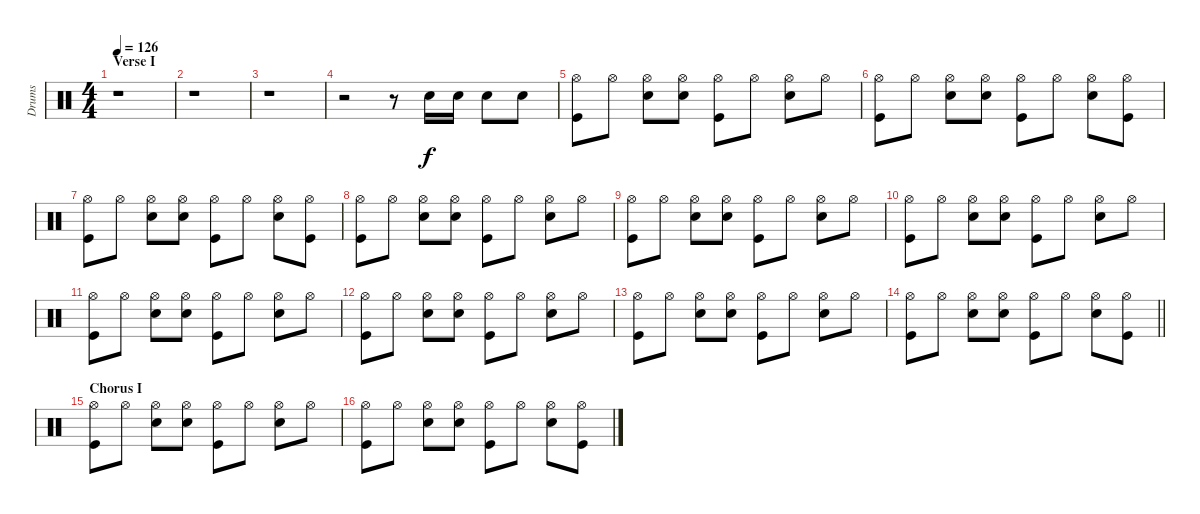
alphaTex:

\track ("Drums" "Drums") {instrument percussion}
\staff {score}
\articulation defaults
\ts (4 4)
\section ("" "Verse I")
\tempo 126
\clef neutral
\ks c
r.1{dy f} |
r.1 |
r.1 |
r.2 r.8 "Snare (hit) 2".16 "Snare (hit) 2".16 "Snare (hit) 2".8 "Snare (hit) 2".8 |
("Hi-Hat (open)" "Kick (hit)").8 "Hi-Hat (open)".8 ("Hi-Hat (open)" "Snare (hit) 2").8 ("Hi-Hat (open)" "Snare (hit) 2").8 ("Hi-Hat (open)" "Kick (hit)").8 "Hi-Hat (open)".8 ("Hi-Hat (open)" "Snare (hit) 2").8 "Hi-Hat (open)".8 |
("Kick (hit)" "Hi-Hat (open)").8 "Hi-Hat (open)".8 ("Hi-Hat (open)" "Snare (hit) 2").8 ("Hi-Hat (open)" "Snare (hit) 2").8 ("Hi-Hat (open)" "Kick (hit)").8 "Hi-Hat (open)".8 ("Hi-Hat (open)" "Snare (hit) 2").8 ("Hi-Hat (open)" "Kick (hit)").8 |
("Hi-Hat (open)" "Kick (hit)").8 "Hi-Hat (open)".8 ("Hi-Hat (open)" "Snare (hit) 2").8 ("Hi-Hat (open)" "Snare (hit) 2").8 ("Hi-Hat (open)" "Kick (hit)").8 "Hi-Hat (open)".8 ("Hi-Hat (open)" "Snare (hit) 2").8 ("Hi-Hat (open)" "Kick (hit)").8 |
("Kick (hit)" "Hi-Hat (open)").8 "Hi-Hat (open)".8 ("Hi-Hat (open)" "Snare (hit) 2").8 ("Hi-Hat (open)" "Snare (hit) 2").8 ("Hi-Hat (open)" "Kick (hit)").8 "Hi-Hat (open)".8 ("Hi-Hat (open)" "Snare (hit) 2").8 "Hi-Hat (open)".8 |
("Kick (hit)" "Hi-Hat (open)").8 "Hi-Hat (open)".8 ("Hi-Hat (open)" "Snare (hit) 2").8 ("Hi-Hat (open)" "Snare (hit) 2").8 ("Hi-Hat (open)" "Kick (hit)").8 "Hi-Hat (open)".8 ("Hi-Hat (open)" "Snare (hit) 2").8 "Hi-Hat (open)".8 |
("Kick (hit)" "Hi-Hat (open)").8 "Hi-Hat (open)".8 ("Hi-Hat (open)" "Snare (hit) 2").8 ("Hi-Hat (open)" "Snare (hit) 2").8 ("Hi-Hat (open)" "Kick (hit)").8 "Hi-Hat (open)".8 ("Hi-Hat (open)" "Snare (hit) 2").8 "Hi-Hat (open)".8 |
("Kick (hit)" "Hi-Hat (open)").8 "Hi-Hat (open)".8 ("Hi-Hat (open)" "Snare (hit) 2").8 ("Hi-Hat (open)" "Snare (hit) 2").8 ("Hi-Hat (open)" "Kick (hit)").8 "Hi-Hat (open)".8 ("Hi-Hat (open)" "Snare (hit) 2").8 "Hi-Hat (open)".8 |
("Hi-Hat (open)" "Kick (hit)").8 "Hi-Hat (open)".8 ("Hi-Hat (open)" "Snare (hit) 2").8 ("Hi-Hat (open)" "Snare (hit) 2").8 ("Hi-Hat (open)" "Kick (hit)").8 "Hi-Hat (open)".8 ("Hi-Hat (open)" "Snare (hit) 2").8 "Hi-Hat (open)".8 |
("Kick (hit)" "Hi-Hat (open)").8 "Hi-Hat (open)".8 ("Hi-Hat (open)" "Snare (hit) 2").8 ("Hi-Hat (open)" "Snare (hit) 2").8 ("Hi-Hat (open)" "Kick (hit)").8 "Hi-Hat (open)".8 ("Hi-Hat (open)" "Snare (hit) 2").8 "Hi-Hat (open)".8 |
\barLineRight lightlight
("Kick (hit)" "Hi-Hat (open)").8 "Hi-Hat (open)".8 ("Hi-Hat (open)" "Snare (hit) 2").8 ("Hi-Hat (open)" "Snare (hit) 2").8 ("Hi-Hat (open)" "Kick (hit)").8 "Hi-Hat (open)".8 ("Hi-Hat (open)" "Snare (hit) 2").8 ("Hi-Hat (open)" "Kick (hit)").8 |
\section ("" "Chorus I")
("Kick (hit)" "Hi-Hat (open)").8 "Hi-Hat (open)".8 ("Hi-Hat (open)" "Snare (hit) 2").8 ("Hi-Hat (open)" "Snare (hit) 2").8 ("Hi-Hat (open)" "Kick (hit)").8 "Hi-Hat (open)".8 ("Hi-Hat (open)" "Snare (hit) 2").8 "Hi-Hat (open)".8 |
("Kick (hit)" "Hi-Hat (open)").8 "Hi-Hat (open)".8 ("Hi-Hat (open)" "Snare (hit) 2").8 ("Hi-Hat (open)" "Snare (hit) 2").8 ("Hi-Hat (open)" "Kick (hit)").8 "Hi-Hat (open)".8 ("Hi-Hat (open)" "Snare (hit) 2").8 ("Hi-Hat (open)" "Kick (hit)").8
